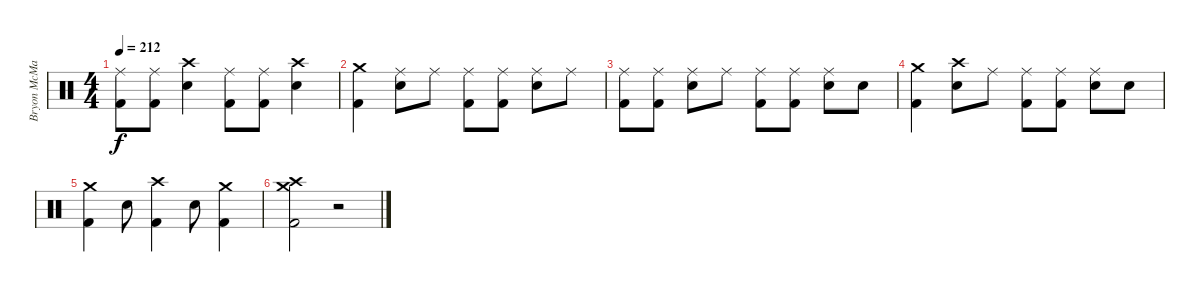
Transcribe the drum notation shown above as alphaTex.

\track ("Bryon McMackin - Drums" "Bryon McMa") {instrument percussion}
\staff {score}
\articulation defaults
\ts (4 4)
\tempo 212
\clef neutral
\ks c
("Ride (middle)" "Kick (hit) 2").8{dy f} ("Ride (middle)" "Kick (hit) 2").8 ("Crash high (hit)" "Electric Snare (hit)").4 ("Ride (middle)" "Kick (hit) 2").8 ("Ride (middle)" "Kick (hit) 2").8 ("Crash high (hit)" "Electric Snare (hit)").4 |
("Crash medium (hit)" "Kick (hit) 2").4 ("Ride (middle)" "Electric Snare (hit)").8 "Ride (middle)".8 ("Ride (middle)" "Kick (hit) 2").8 ("Ride (middle)" "Kick (hit) 2").8 ("Ride (middle)" "Electric Snare (hit)").8 "Ride (middle)".8 |
("Ride (middle)" "Kick (hit) 2").8 ("Ride (middle)" "Kick (hit) 2").8 ("Ride (middle)" "Electric Snare (hit)").8 "Ride (middle)".8 ("Ride (middle)" "Kick (hit) 2").8 ("Ride (middle)" "Kick (hit) 2").8 ("Ride (middle)" "Electric Snare (hit)").8 "Electric Snare (hit)".8 |
("Crash medium (hit)" "Kick (hit) 2").4 ("Crash high (hit)" "Electric Snare (hit)").8 "Ride (middle)".8 ("Ride (middle)" "Kick (hit) 2").8 ("Ride (middle)" "Kick (hit) 2").8 ("Ride (middle)" "Electric Snare (hit)").8 "Electric Snare (hit)".8 |
("Crash medium (hit)" "Kick (hit) 2").4 "Electric Snare (hit)".8 ("Crash high (hit)" "Kick (hit) 2").4 "Electric Snare (hit)".8 ("Crash medium (hit)" "Kick (hit) 2").4 |
("Crash medium (hit)" "Crash high (hit)" "Kick (hit) 2").2 r.2
